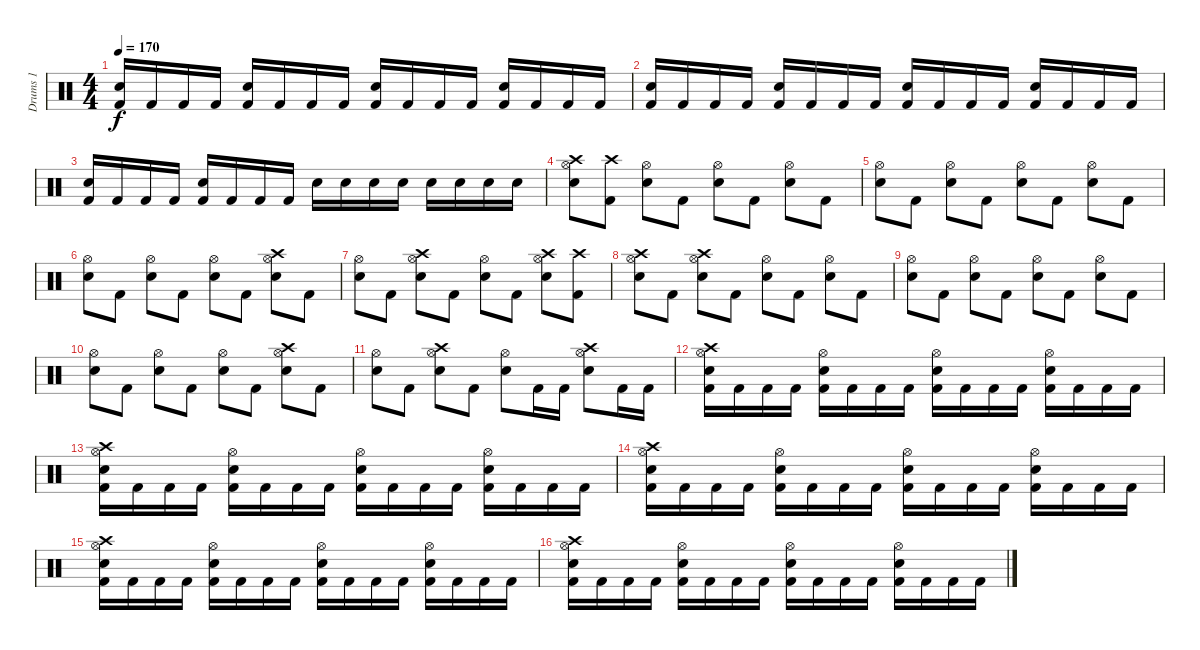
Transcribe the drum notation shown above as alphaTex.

\track ("Drums 1" "Drums 1") {instrument percussion}
\staff {score}
\articulation defaults
\ts (4 4)
\tempo 170
\clef neutral
\ks c
("Snare (hit) 2" "Kick (hit) 2").16{dy f} "Kick (hit) 2".16 "Kick (hit) 2".16 "Kick (hit) 2".16 ("Snare (hit) 2" "Kick (hit) 2").16 "Kick (hit) 2".16 "Kick (hit) 2".16 "Kick (hit) 2".16 ("Snare (hit) 2" "Kick (hit) 2").16 "Kick (hit) 2".16 "Kick (hit) 2".16 "Kick (hit) 2".16 ("Snare (hit) 2" "Kick (hit) 2").16 "Kick (hit) 2".16 "Kick (hit) 2".16 "Kick (hit) 2".16 |
("Snare (hit) 2" "Kick (hit) 2").16 "Kick (hit) 2".16 "Kick (hit) 2".16 "Kick (hit) 2".16 ("Snare (hit) 2" "Kick (hit) 2").16 "Kick (hit) 2".16 "Kick (hit) 2".16 "Kick (hit) 2".16 ("Snare (hit) 2" "Kick (hit) 2").16 "Kick (hit) 2".16 "Kick (hit) 2".16 "Kick (hit) 2".16 ("Snare (hit) 2" "Kick (hit) 2").16 "Kick (hit) 2".16 "Kick (hit) 2".16 "Kick (hit) 2".16 |
("Snare (hit) 2" "Kick (hit) 2").16 "Kick (hit) 2".16 "Kick (hit) 2".16 "Kick (hit) 2".16 ("Snare (hit) 2" "Kick (hit) 2").16 "Kick (hit) 2".16 "Kick (hit) 2".16 "Kick (hit) 2".16 "Snare (hit) 2".16 "Snare (hit) 2".16 "Snare (hit) 2".16 "Snare (hit) 2".16 "Snare (hit) 2".16 "Snare (hit) 2".16 "Snare (hit) 2".16 "Snare (hit) 2".16 |
("Crash high (hit)" "Hi-Hat (open)" "Snare (hit) 2").8 ("Crash high (hit)" "Kick (hit) 2").8 ("Hi-Hat (open)" "Snare (hit) 2").8 "Kick (hit) 2".8 ("Hi-Hat (open)" "Snare (hit) 2").8 "Kick (hit) 2".8 ("Hi-Hat (open)" "Snare (hit) 2").8 "Kick (hit) 2".8 |
("Hi-Hat (open)" "Snare (hit) 2").8 "Kick (hit) 2".8 ("Hi-Hat (open)" "Snare (hit) 2").8 "Kick (hit) 2".8 ("Hi-Hat (open)" "Snare (hit) 2").8 "Kick (hit) 2".8 ("Hi-Hat (open)" "Snare (hit) 2").8 "Kick (hit) 2".8 |
("Hi-Hat (open)" "Snare (hit) 2").8 "Kick (hit) 2".8 ("Hi-Hat (open)" "Snare (hit) 2").8 "Kick (hit) 2".8 ("Hi-Hat (open)" "Snare (hit) 2").8 "Kick (hit) 2".8 ("Crash high (hit)" "Hi-Hat (open)" "Snare (hit) 2").8 "Kick (hit) 2".8 |
("Hi-Hat (open)" "Snare (hit) 2").8 "Kick (hit) 2".8 ("Crash high (hit)" "Hi-Hat (open)" "Snare (hit) 2").8 "Kick (hit) 2".8 ("Hi-Hat (open)" "Snare (hit) 2").8 "Kick (hit) 2".8 ("Crash high (hit)" "Hi-Hat (open)" "Snare (hit) 2").8 ("Crash high (hit)" "Kick (hit) 2").8 |
("Crash high (hit)" "Hi-Hat (open)" "Snare (hit) 2").8 "Kick (hit) 2".8 ("Crash high (hit)" "Hi-Hat (open)" "Snare (hit) 2").8 "Kick (hit) 2".8 ("Hi-Hat (open)" "Snare (hit) 2").8 "Kick (hit) 2".8 ("Hi-Hat (open)" "Snare (hit) 2").8 "Kick (hit) 2".8 |
("Hi-Hat (open)" "Snare (hit) 2").8 "Kick (hit) 2".8 ("Hi-Hat (open)" "Snare (hit) 2").8 "Kick (hit) 2".8 ("Hi-Hat (open)" "Snare (hit) 2").8 "Kick (hit) 2".8 ("Hi-Hat (open)" "Snare (hit) 2").8 "Kick (hit) 2".8 |
("Hi-Hat (open)" "Snare (hit) 2").8 "Kick (hit) 2".8 ("Hi-Hat (open)" "Snare (hit) 2").8 "Kick (hit) 2".8 ("Hi-Hat (open)" "Snare (hit) 2").8 "Kick (hit) 2".8 ("Crash high (hit)" "Hi-Hat (open)" "Snare (hit) 2").8 "Kick (hit) 2".8 |
("Hi-Hat (open)" "Snare (hit) 2").8 "Kick (hit) 2".8 ("Crash high (hit)" "Hi-Hat (open)" "Snare (hit) 2").8 "Kick (hit) 2".8 ("Hi-Hat (open)" "Snare (hit) 2").8 "Kick (hit) 2".16 "Kick (hit) 2".16 ("Crash high (hit)" "Hi-Hat (open)" "Snare (hit) 2").8 "Kick (hit) 2".16 "Kick (hit) 2".16 |
("Crash high (hit)" "Hi-Hat (open)" "Snare (hit) 2" "Kick (hit) 2").16 "Kick (hit) 2".16 "Kick (hit) 2".16 "Kick (hit) 2".16 ("Hi-Hat (open)" "Snare (hit) 2" "Kick (hit) 2").16 "Kick (hit) 2".16 "Kick (hit) 2".16 "Kick (hit) 2".16 ("Hi-Hat (open)" "Snare (hit) 2" "Kick (hit) 2").16 "Kick (hit) 2".16 "Kick (hit) 2".16 "Kick (hit) 2".16 ("Hi-Hat (open)" "Snare (hit) 2" "Kick (hit) 2").16 "Kick (hit) 2".16 "Kick (hit) 2".16 "Kick (hit) 2".16 |
("Crash high (hit)" "Hi-Hat (open)" "Snare (hit) 2" "Kick (hit) 2").16 "Kick (hit) 2".16 "Kick (hit) 2".16 "Kick (hit) 2".16 ("Hi-Hat (open)" "Snare (hit) 2" "Kick (hit) 2").16 "Kick (hit) 2".16 "Kick (hit) 2".16 "Kick (hit) 2".16 ("Hi-Hat (open)" "Snare (hit) 2" "Kick (hit) 2").16 "Kick (hit) 2".16 "Kick (hit) 2".16 "Kick (hit) 2".16 ("Hi-Hat (open)" "Snare (hit) 2" "Kick (hit) 2").16 "Kick (hit) 2".16 "Kick (hit) 2".16 "Kick (hit) 2".16 |
("Crash high (hit)" "Hi-Hat (open)" "Snare (hit) 2" "Kick (hit) 2").16 "Kick (hit) 2".16 "Kick (hit) 2".16 "Kick (hit) 2".16 ("Hi-Hat (open)" "Snare (hit) 2" "Kick (hit) 2").16 "Kick (hit) 2".16 "Kick (hit) 2".16 "Kick (hit) 2".16 ("Hi-Hat (open)" "Snare (hit) 2" "Kick (hit) 2").16 "Kick (hit) 2".16 "Kick (hit) 2".16 "Kick (hit) 2".16 ("Hi-Hat (open)" "Snare (hit) 2" "Kick (hit) 2").16 "Kick (hit) 2".16 "Kick (hit) 2".16 "Kick (hit) 2".16 |
("Crash high (hit)" "Hi-Hat (open)" "Snare (hit) 2" "Kick (hit) 2").16 "Kick (hit) 2".16 "Kick (hit) 2".16 "Kick (hit) 2".16 ("Hi-Hat (open)" "Snare (hit) 2" "Kick (hit) 2").16 "Kick (hit) 2".16 "Kick (hit) 2".16 "Kick (hit) 2".16 ("Hi-Hat (open)" "Snare (hit) 2" "Kick (hit) 2").16 "Kick (hit) 2".16 "Kick (hit) 2".16 "Kick (hit) 2".16 ("Hi-Hat (open)" "Snare (hit) 2" "Kick (hit) 2").16 "Kick (hit) 2".16 "Kick (hit) 2".16 "Kick (hit) 2".16 |
("Crash high (hit)" "Hi-Hat (open)" "Snare (hit) 2" "Kick (hit) 2").16 "Kick (hit) 2".16 "Kick (hit) 2".16 "Kick (hit) 2".16 ("Hi-Hat (open)" "Snare (hit) 2" "Kick (hit) 2").16 "Kick (hit) 2".16 "Kick (hit) 2".16 "Kick (hit) 2".16 ("Hi-Hat (open)" "Snare (hit) 2" "Kick (hit) 2").16 "Kick (hit) 2".16 "Kick (hit) 2".16 "Kick (hit) 2".16 ("Hi-Hat (open)" "Snare (hit) 2" "Kick (hit) 2").16 "Kick (hit) 2".16 "Kick (hit) 2".16 "Kick (hit) 2".16
